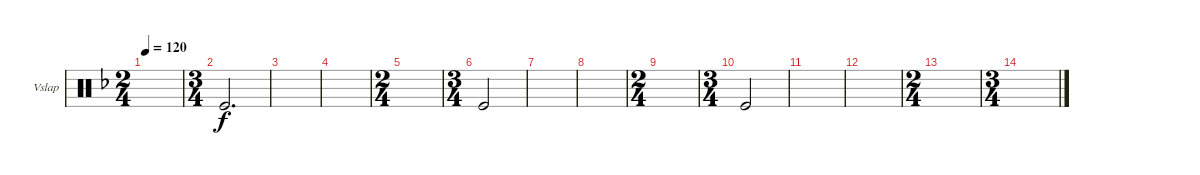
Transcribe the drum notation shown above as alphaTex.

\defaultSystemsLayout 4
\bracketExtendMode groupsimilarinstruments
\firstSystemTrackNameOrientation horizontal
\otherSystemsTrackNameOrientation horizontal
\track ("Vibraslap" "Vslap") {instrument percussion}
\staff {score}
\articulation defaults
\ts (2 4)
\tempo 120
\clef neutral
\scale
0.5
\ks f
|
\ts (3 4)
\scale
0.5 "Kick (hit)".2{d} |
\scale
0.25 |
\scale
0.25 |
\ts (2 4)
\scale
0.4 |
\ts (3 4)
\scale
0.4 "Kick (hit)".2 |
\scale
0.2 |
\scale
0.2 |
\ts (2 4)
\scale
0.4 |
\ts (3 4)
\scale
0.4 "Kick (hit)".2 |
\scale
0.25 |
\scale
0.25 |
\ts (2 4)
\scale
0.5 |
\ts (3 4)
\scale
0.5 |
\scale
0.25 |
\scale
0.25
